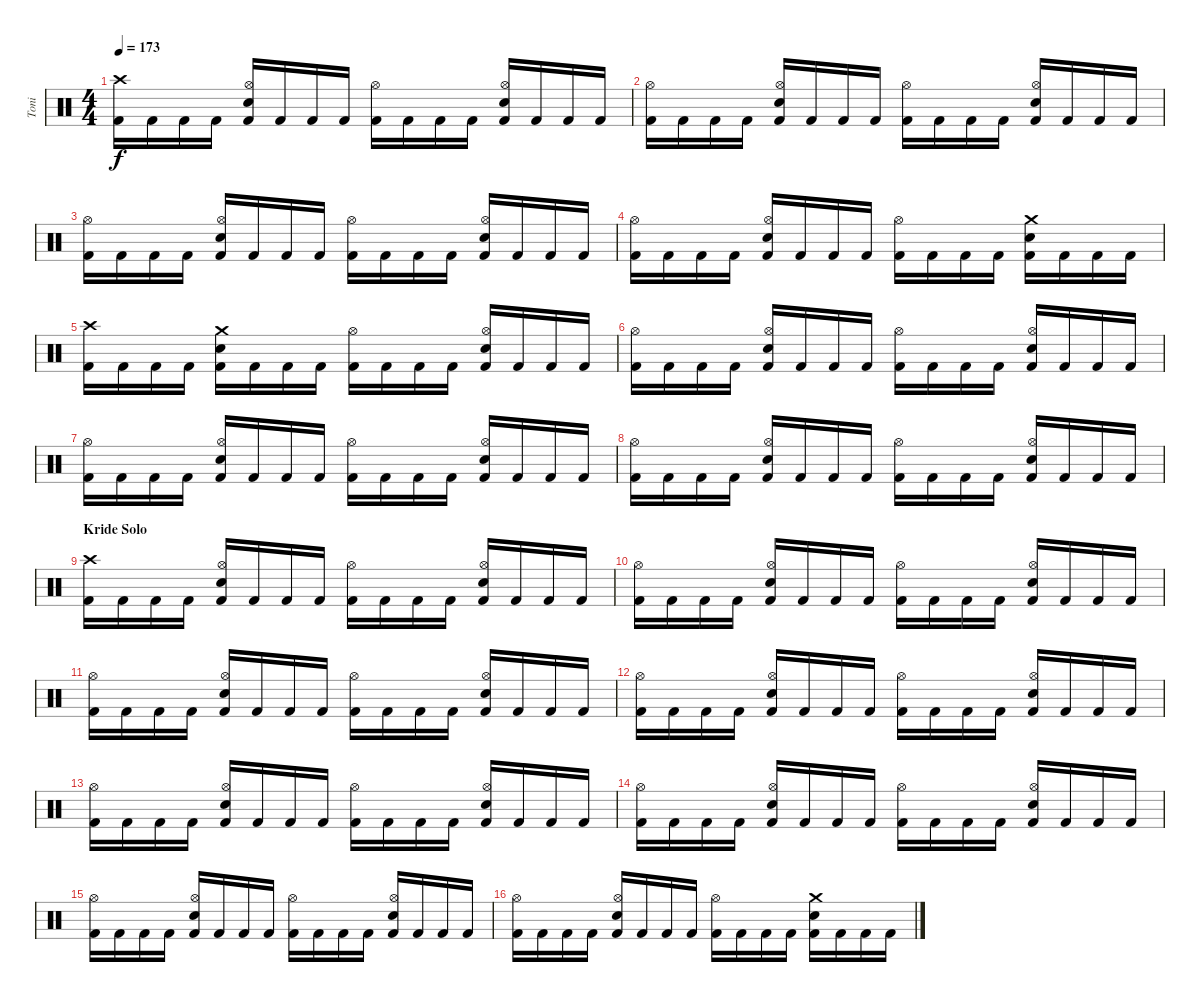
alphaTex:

\track ("Toni" "Toni") {instrument percussion}
\staff {score}
\articulation defaults
\ts (4 4)
\tempo 173
\clef neutral
\ks c
("Crash high (hit)" "Kick (hit) 2").16{dy f} "Kick (hit) 2".16 "Kick (hit) 2".16 "Kick (hit) 2".16 ("Hi-Hat (open)" "Electric Snare (hit)" "Kick (hit) 2").16 "Kick (hit) 2".16 "Kick (hit) 2".16 "Kick (hit) 2".16 ("Hi-Hat (open)" "Kick (hit) 2").16 "Kick (hit) 2".16 "Kick (hit) 2".16 "Kick (hit) 2".16 ("Hi-Hat (open)" "Electric Snare (hit)" "Kick (hit) 2").16 "Kick (hit) 2".16 "Kick (hit) 2".16 "Kick (hit) 2".16 |
("Hi-Hat (open)" "Kick (hit) 2").16 "Kick (hit) 2".16 "Kick (hit) 2".16 "Kick (hit) 2".16 ("Hi-Hat (open)" "Electric Snare (hit)" "Kick (hit) 2").16 "Kick (hit) 2".16 "Kick (hit) 2".16 "Kick (hit) 2".16 ("Hi-Hat (open)" "Kick (hit) 2").16 "Kick (hit) 2".16 "Kick (hit) 2".16 "Kick (hit) 2".16 ("Hi-Hat (open)" "Electric Snare (hit)" "Kick (hit) 2").16 "Kick (hit) 2".16 "Kick (hit) 2".16 "Kick (hit) 2".16 |
("Hi-Hat (open)" "Kick (hit) 2").16 "Kick (hit) 2".16 "Kick (hit) 2".16 "Kick (hit) 2".16 ("Hi-Hat (open)" "Electric Snare (hit)" "Kick (hit) 2").16 "Kick (hit) 2".16 "Kick (hit) 2".16 "Kick (hit) 2".16 ("Hi-Hat (open)" "Kick (hit) 2").16 "Kick (hit) 2".16 "Kick (hit) 2".16 "Kick (hit) 2".16 ("Hi-Hat (open)" "Electric Snare (hit)" "Kick (hit) 2").16 "Kick (hit) 2".16 "Kick (hit) 2".16 "Kick (hit) 2".16 |
("Hi-Hat (open)" "Kick (hit) 2").16 "Kick (hit) 2".16 "Kick (hit) 2".16 "Kick (hit) 2".16 ("Hi-Hat (open)" "Electric Snare (hit)" "Kick (hit) 2").16 "Kick (hit) 2".16 "Kick (hit) 2".16 "Kick (hit) 2".16 ("Hi-Hat (open)" "Kick (hit) 2").16 "Kick (hit) 2".16 "Kick (hit) 2".16 "Kick (hit) 2".16 ("Crash medium (hit)" "Electric Snare (hit)" "Kick (hit) 2").16 "Kick (hit) 2".16 "Kick (hit) 2".16 "Kick (hit) 2".16 |
("Crash high (hit)" "Kick (hit) 2").16 "Kick (hit) 2".16 "Kick (hit) 2".16 "Kick (hit) 2".16 ("Crash medium (hit)" "Electric Snare (hit)" "Kick (hit) 2").16 "Kick (hit) 2".16 "Kick (hit) 2".16 "Kick (hit) 2".16 ("Hi-Hat (open)" "Kick (hit) 2").16 "Kick (hit) 2".16 "Kick (hit) 2".16 "Kick (hit) 2".16 ("Hi-Hat (open)" "Electric Snare (hit)" "Kick (hit) 2").16 "Kick (hit) 2".16 "Kick (hit) 2".16 "Kick (hit) 2".16 |
("Hi-Hat (open)" "Kick (hit) 2").16 "Kick (hit) 2".16 "Kick (hit) 2".16 "Kick (hit) 2".16 ("Hi-Hat (open)" "Electric Snare (hit)" "Kick (hit) 2").16 "Kick (hit) 2".16 "Kick (hit) 2".16 "Kick (hit) 2".16 ("Hi-Hat (open)" "Kick (hit) 2").16 "Kick (hit) 2".16 "Kick (hit) 2".16 "Kick (hit) 2".16 ("Hi-Hat (open)" "Electric Snare (hit)" "Kick (hit) 2").16 "Kick (hit) 2".16 "Kick (hit) 2".16 "Kick (hit) 2".16 |
("Hi-Hat (open)" "Kick (hit) 2").16 "Kick (hit) 2".16 "Kick (hit) 2".16 "Kick (hit) 2".16 ("Hi-Hat (open)" "Electric Snare (hit)" "Kick (hit) 2").16 "Kick (hit) 2".16 "Kick (hit) 2".16 "Kick (hit) 2".16 ("Hi-Hat (open)" "Kick (hit) 2").16 "Kick (hit) 2".16 "Kick (hit) 2".16 "Kick (hit) 2".16 ("Hi-Hat (open)" "Electric Snare (hit)" "Kick (hit) 2").16 "Kick (hit) 2".16 "Kick (hit) 2".16 "Kick (hit) 2".16 |
("Hi-Hat (open)" "Kick (hit) 2").16 "Kick (hit) 2".16 "Kick (hit) 2".16 "Kick (hit) 2".16 ("Hi-Hat (open)" "Electric Snare (hit)" "Kick (hit) 2").16 "Kick (hit) 2".16 "Kick (hit) 2".16 "Kick (hit) 2".16 ("Hi-Hat (open)" "Kick (hit) 2").16 "Kick (hit) 2".16 "Kick (hit) 2".16 "Kick (hit) 2".16 ("Hi-Hat (open)" "Electric Snare (hit)" "Kick (hit) 2").16 "Kick (hit) 2".16 "Kick (hit) 2".16 "Kick (hit) 2".16 |
\section ("" "Kride Solo")
("Crash high (hit)" "Kick (hit) 2").16 "Kick (hit) 2".16 "Kick (hit) 2".16 "Kick (hit) 2".16 ("Hi-Hat (open)" "Electric Snare (hit)" "Kick (hit) 2").16 "Kick (hit) 2".16 "Kick (hit) 2".16 "Kick (hit) 2".16 ("Hi-Hat (open)" "Kick (hit) 2").16 "Kick (hit) 2".16 "Kick (hit) 2".16 "Kick (hit) 2".16 ("Hi-Hat (open)" "Electric Snare (hit)" "Kick (hit) 2").16 "Kick (hit) 2".16 "Kick (hit) 2".16 "Kick (hit) 2".16 |
("Hi-Hat (open)" "Kick (hit) 2").16 "Kick (hit) 2".16 "Kick (hit) 2".16 "Kick (hit) 2".16 ("Hi-Hat (open)" "Electric Snare (hit)" "Kick (hit) 2").16 "Kick (hit) 2".16 "Kick (hit) 2".16 "Kick (hit) 2".16 ("Hi-Hat (open)" "Kick (hit) 2").16 "Kick (hit) 2".16 "Kick (hit) 2".16 "Kick (hit) 2".16 ("Hi-Hat (open)" "Electric Snare (hit)" "Kick (hit) 2").16 "Kick (hit) 2".16 "Kick (hit) 2".16 "Kick (hit) 2".16 |
("Hi-Hat (open)" "Kick (hit) 2").16 "Kick (hit) 2".16 "Kick (hit) 2".16 "Kick (hit) 2".16 ("Hi-Hat (open)" "Electric Snare (hit)" "Kick (hit) 2").16 "Kick (hit) 2".16 "Kick (hit) 2".16 "Kick (hit) 2".16 ("Hi-Hat (open)" "Kick (hit) 2").16 "Kick (hit) 2".16 "Kick (hit) 2".16 "Kick (hit) 2".16 ("Hi-Hat (open)" "Electric Snare (hit)" "Kick (hit) 2").16 "Kick (hit) 2".16 "Kick (hit) 2".16 "Kick (hit) 2".16 |
("Hi-Hat (open)" "Kick (hit) 2").16 "Kick (hit) 2".16 "Kick (hit) 2".16 "Kick (hit) 2".16 ("Hi-Hat (open)" "Electric Snare (hit)" "Kick (hit) 2").16 "Kick (hit) 2".16 "Kick (hit) 2".16 "Kick (hit) 2".16 ("Hi-Hat (open)" "Kick (hit) 2").16 "Kick (hit) 2".16 "Kick (hit) 2".16 "Kick (hit) 2".16 ("Hi-Hat (open)" "Electric Snare (hit)" "Kick (hit) 2").16 "Kick (hit) 2".16 "Kick (hit) 2".16 "Kick (hit) 2".16 |
("Hi-Hat (open)" "Kick (hit) 2").16 "Kick (hit) 2".16 "Kick (hit) 2".16 "Kick (hit) 2".16 ("Hi-Hat (open)" "Electric Snare (hit)" "Kick (hit) 2").16 "Kick (hit) 2".16 "Kick (hit) 2".16 "Kick (hit) 2".16 ("Hi-Hat (open)" "Kick (hit) 2").16 "Kick (hit) 2".16 "Kick (hit) 2".16 "Kick (hit) 2".16 ("Hi-Hat (open)" "Electric Snare (hit)" "Kick (hit) 2").16 "Kick (hit) 2".16 "Kick (hit) 2".16 "Kick (hit) 2".16 |
("Hi-Hat (open)" "Kick (hit) 2").16 "Kick (hit) 2".16 "Kick (hit) 2".16 "Kick (hit) 2".16 ("Hi-Hat (open)" "Electric Snare (hit)" "Kick (hit) 2").16 "Kick (hit) 2".16 "Kick (hit) 2".16 "Kick (hit) 2".16 ("Hi-Hat (open)" "Kick (hit) 2").16 "Kick (hit) 2".16 "Kick (hit) 2".16 "Kick (hit) 2".16 ("Hi-Hat (open)" "Electric Snare (hit)" "Kick (hit) 2").16 "Kick (hit) 2".16 "Kick (hit) 2".16 "Kick (hit) 2".16 |
("Hi-Hat (open)" "Kick (hit) 2").16 "Kick (hit) 2".16 "Kick (hit) 2".16 "Kick (hit) 2".16 ("Hi-Hat (open)" "Electric Snare (hit)" "Kick (hit) 2").16 "Kick (hit) 2".16 "Kick (hit) 2".16 "Kick (hit) 2".16 ("Hi-Hat (open)" "Kick (hit) 2").16 "Kick (hit) 2".16 "Kick (hit) 2".16 "Kick (hit) 2".16 ("Hi-Hat (open)" "Electric Snare (hit)" "Kick (hit) 2").16 "Kick (hit) 2".16 "Kick (hit) 2".16 "Kick (hit) 2".16 |
("Hi-Hat (open)" "Kick (hit) 2").16 "Kick (hit) 2".16 "Kick (hit) 2".16 "Kick (hit) 2".16 ("Hi-Hat (open)" "Electric Snare (hit)" "Kick (hit) 2").16 "Kick (hit) 2".16 "Kick (hit) 2".16 "Kick (hit) 2".16 ("Hi-Hat (open)" "Kick (hit) 2").16 "Kick (hit) 2".16 "Kick (hit) 2".16 "Kick (hit) 2".16 ("Crash medium (hit)" "Electric Snare (hit)" "Kick (hit) 2").16 "Kick (hit) 2".16 "Kick (hit) 2".16 "Kick (hit) 2".16
